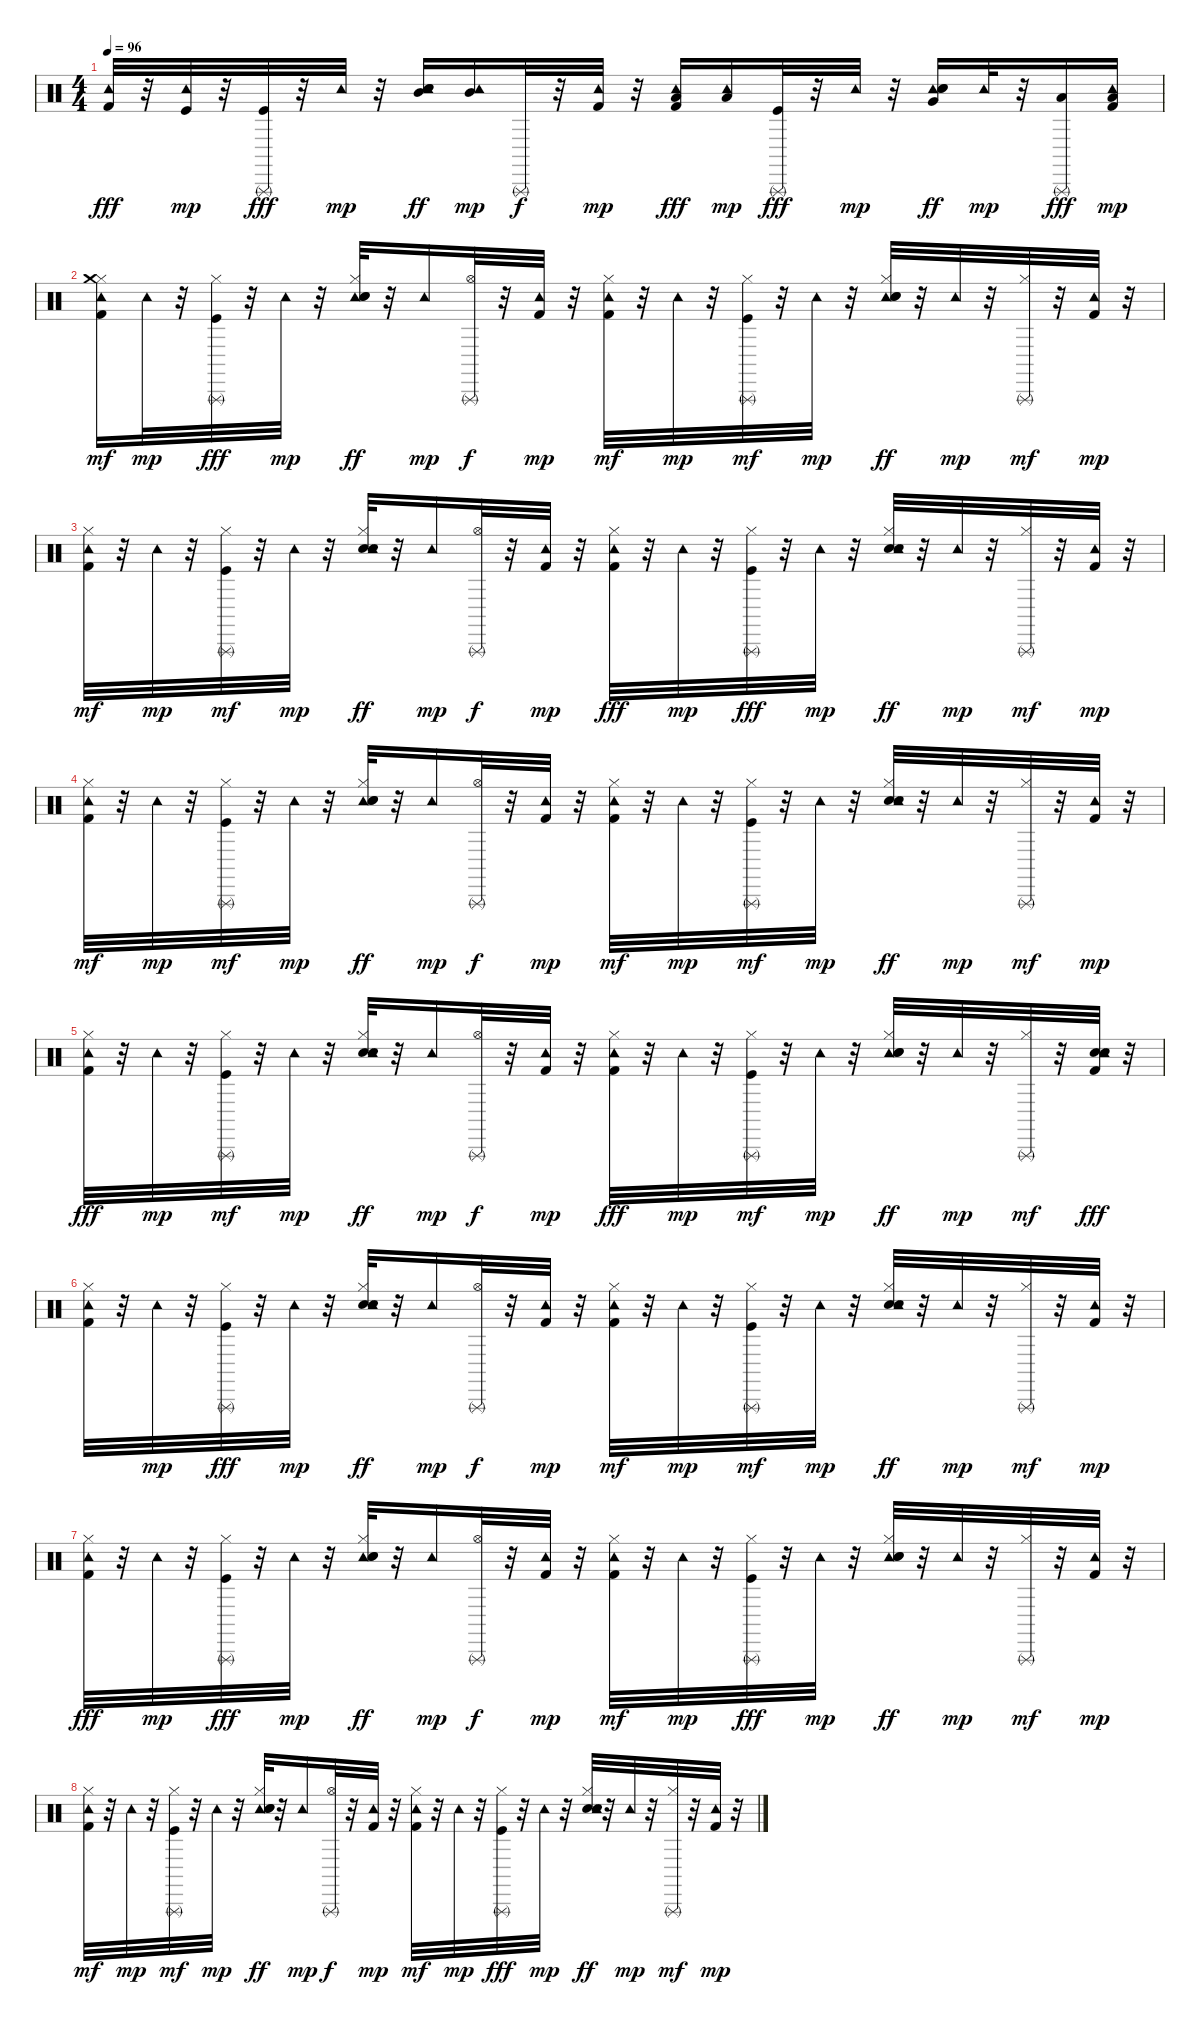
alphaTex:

\track "" {instrument percussion}
\staff {score}
\articulation defaults
\ts (4 4)
\tempo 96
\clef neutral
\ks c
("Tambourine (hit)" "Kick (hit) 2").32{dy fff} r.32 ("Kick (hit)" "Tambourine (hit)").32{dy mp} r.32 ("Kick (hit)" "Triangle (rnute)").32{dy fff} r.32 "Tambourine (hit)".32{dy mp} r.32 ("Tambourine (hit)" "Mid Tom (hit)" "Electric Snare (hit)" "Hand Clap (hit)").16{dy ff} ("Mid Tom (hit)" "Tambourine (hit)").16{dy mp} "Triangle (rnute)".32{dy f} r.32 ("Kick (hit) 2" "Tambourine (hit)").32{dy mp} r.32 ("Tambourine (hit)" "Low Tom (hit)" "Kick (hit) 2").16{dy fff} ("Low Tom (hit)" "Tambourine (hit)").16{dy mp} ("Kick (hit)" "Triangle (rnute)").32{dy fff} r.32 "Tambourine (hit)".32{dy mp} r.32 ("Very Low Tom (hit)" "Tambourine (hit)" "Electric Snare (hit)" "Hand Clap (hit)").16{dy ff} "Tambourine (hit)".32{dy mp} r.32 ("Low Floor Tom (hit)" "Triangle (rnute)").16{dy fff} ("Kick (hit) 2" "Tambourine (hit)" "Low Floor Tom (hit)").16{dy mp} |
("Hi-Hat (closed)" "Crash medium (hit)" "Kick (hit) 2" "Tambourine (hit)").16{dy mf} "Tambourine (hit)".32{dy mp} r.32 ("Triangle (rnute)" "Hi-Hat (closed)" "Kick (hit)").32{dy fff} r.32 "Tambourine (hit)".32{dy mp} r.32 ("Tambourine (hit)" "Electric Snare (hit)" "Hi-Hat (closed)" "Hand Clap (hit)").32{dy ff} r.32 "Tambourine (hit)".16{dy mp} ("Hi-Hat (open)" "Triangle (rnute)").32{dy f} r.32 ("Tambourine (hit)" "Kick (hit) 2").32{dy mp} r.32 ("Kick (hit) 2" "Tambourine (hit)" "Hi-Hat (closed)").32{dy mf} r.32 "Tambourine (hit)".32{dy mp} r.32 ("Kick (hit)" "Triangle (rnute)" "Hi-Hat (closed)").32{dy mf} r.32 "Tambourine (hit)".32{dy mp} r.32 ("Tambourine (hit)" "Electric Snare (hit)" "Hi-Hat (closed)" "Hand Clap (hit)").32{dy ff} r.32 "Tambourine (hit)".32{dy mp} r.32 ("Triangle (rnute)" "Hi-Hat (closed)").32{dy mf} r.32 ("Kick (hit) 2" "Tambourine (hit)").32{dy mp} r.32 |
("Kick (hit) 2" "Hi-Hat (closed)" "Tambourine (hit)").32{dy mf} r.32 "Tambourine (hit)".32{dy mp} r.32 ("Kick (hit)" "Hi-Hat (closed)" "Triangle (rnute)").32{dy mf} r.32 "Tambourine (hit)".32{dy mp} r.32 ("Hi-Hat (closed)" "Electric Snare (hit)" "Tambourine (hit)" "Hand Clap (hit)").32{dy ff} r.32 "Tambourine (hit)".16{dy mp} ("Hi-Hat (open)" "Triangle (rnute)").32{dy f} r.32 ("Tambourine (hit)" "Kick (hit) 2").32{dy mp} r.32 ("Tambourine (hit)" "Hi-Hat (closed)" "Kick (hit) 2").32{dy fff} r.32 "Tambourine (hit)".32{dy mp} r.32 ("Hi-Hat (closed)" "Triangle (rnute)" "Kick (hit)").32{dy fff} r.32 "Tambourine (hit)".32{dy mp} r.32 ("Electric Snare (hit)" "Tambourine (hit)" "Hi-Hat (closed)" "Hand Clap (hit)").32{dy ff} r.32 "Tambourine (hit)".32{dy mp} r.32 ("Hi-Hat (closed)" "Triangle (rnute)").32{dy mf} r.32 ("Kick (hit) 2" "Tambourine (hit)").32{dy mp} r.32 |
("Hi-Hat (closed)" "Kick (hit) 2" "Tambourine (hit)").32{dy mf} r.32 "Tambourine (hit)".32{dy mp} r.32 ("Kick (hit)" "Hi-Hat (closed)" "Triangle (rnute)").32{dy mf} r.32 "Tambourine (hit)".32{dy mp} r.32 ("Tambourine (hit)" "Hi-Hat (closed)" "Electric Snare (hit)" "Hand Clap (hit)").32{dy ff} r.32 "Tambourine (hit)".16{dy mp} ("Triangle (rnute)" "Hi-Hat (open)").32{dy f} r.32 ("Kick (hit) 2" "Tambourine (hit)").32{dy mp} r.32 ("Kick (hit) 2" "Tambourine (hit)" "Hi-Hat (closed)").32{dy mf} r.32 "Tambourine (hit)".32{dy mp} r.32 ("Kick (hit)" "Hi-Hat (closed)" "Triangle (rnute)").32{dy mf} r.32 "Tambourine (hit)".32{dy mp} r.32 ("Electric Snare (hit)" "Hi-Hat (closed)" "Tambourine (hit)" "Hand Clap (hit)").32{dy ff} r.32 "Tambourine (hit)".32{dy mp} r.32 ("Hi-Hat (closed)" "Triangle (rnute)").32{dy mf} r.32 ("Kick (hit) 2" "Tambourine (hit)").32{dy mp} r.32 |
("Tambourine (hit)" "Hi-Hat (closed)" "Kick (hit) 2").32{dy fff} r.32 "Tambourine (hit)".32{dy mp} r.32 ("Triangle (rnute)" "Kick (hit)" "Hi-Hat (closed)").32{dy mf} r.32 "Tambourine (hit)".32{dy mp} r.32 ("Electric Snare (hit)" "Hi-Hat (closed)" "Tambourine (hit)" "Hand Clap (hit)").32{dy ff} r.32 "Tambourine (hit)".16{dy mp} ("Triangle (rnute)" "Hi-Hat (open)").32{dy f} r.32 ("Tambourine (hit)" "Kick (hit) 2").32{dy mp} r.32 ("Tambourine (hit)" "Kick (hit) 2" "Hi-Hat (closed)").32{dy fff} r.32 "Tambourine (hit)".32{dy mp} r.32 ("Triangle (rnute)" "Kick (hit)" "Hi-Hat (closed)").32{dy mf} r.32 "Tambourine (hit)".32{dy mp} r.32 ("Tambourine (hit)" "Hi-Hat (closed)" "Electric Snare (hit)" "Hand Clap (hit)").32{dy ff} r.32 "Tambourine (hit)".32{dy mp} r.32 ("Triangle (rnute)" "Hi-Hat (closed)").32{dy mf} r.32 ("Hand Clap (hit)" "Tambourine (hit)" "Electric Snare (hit)" "Kick (hit) 2").32{dy fff} r.32 |
("Hi-Hat (closed)" "Tambourine (hit)" "Kick (hit) 2").32 r.32 "Tambourine (hit)".32{dy mp} r.32 ("Triangle (rnute)" "Hi-Hat (closed)" "Kick (hit)").32{dy fff} r.32 "Tambourine (hit)".32{dy mp} r.32 ("Electric Snare (hit)" "Tambourine (hit)" "Hi-Hat (closed)" "Hand Clap (hit)").32{dy ff} r.32 "Tambourine (hit)".16{dy mp} ("Triangle (rnute)" "Hi-Hat (open)").32{dy f} r.32 ("Kick (hit) 2" "Tambourine (hit)").32{dy mp} r.32 ("Hi-Hat (closed)" "Kick (hit) 2" "Tambourine (hit)").32{dy mf} r.32 "Tambourine (hit)".32{dy mp} r.32 ("Kick (hit)" "Hi-Hat (closed)" "Triangle (rnute)").32{dy mf} r.32 "Tambourine (hit)".32{dy mp} r.32 ("Electric Snare (hit)" "Tambourine (hit)" "Hi-Hat (closed)" "Hand Clap (hit)").32{dy ff} r.32 "Tambourine (hit)".32{dy mp} r.32 ("Triangle (rnute)" "Hi-Hat (closed)").32{dy mf} r.32 ("Tambourine (hit)" "Kick (hit) 2").32{dy mp} r.32 |
("Tambourine (hit)" "Hi-Hat (closed)" "Kick (hit) 2").32{dy fff} r.32 "Tambourine (hit)".32{dy mp} r.32 ("Hi-Hat (closed)" "Triangle (rnute)" "Kick (hit)").32{dy fff} r.32 "Tambourine (hit)".32{dy mp} r.32 ("Tambourine (hit)" "Electric Snare (hit)" "Hi-Hat (closed)" "Hand Clap (hit)").32{dy ff} r.32 "Tambourine (hit)".16{dy mp} ("Hi-Hat (open)" "Triangle (rnute)").32{dy f} r.32 ("Tambourine (hit)" "Kick (hit) 2").32{dy mp} r.32 ("Hi-Hat (closed)" "Kick (hit) 2" "Tambourine (hit)").32{dy mf} r.32 "Tambourine (hit)".32{dy mp} r.32 ("Triangle (rnute)" "Hi-Hat (closed)" "Kick (hit)").32{dy fff} r.32 "Tambourine (hit)".32{dy mp} r.32 ("Hi-Hat (closed)" "Tambourine (hit)" "Electric Snare (hit)" "Hand Clap (hit)").32{dy ff} r.32 "Tambourine (hit)".32{dy mp} r.32 ("Hi-Hat (closed)" "Triangle (rnute)").32{dy mf} r.32 ("Tambourine (hit)" "Kick (hit) 2").32{dy mp} r.32 |
("Kick (hit) 2" "Hi-Hat (closed)" "Tambourine (hit)").32{dy mf} r.32 "Tambourine (hit)".32{dy mp} r.32 ("Kick (hit)" "Hi-Hat (closed)" "Triangle (rnute)").32{dy mf} r.32 "Tambourine (hit)".32{dy mp} r.32 ("Tambourine (hit)" "Hi-Hat (closed)" "Electric Snare (hit)" "Hand Clap (hit)").32{dy ff} r.32 "Tambourine (hit)".16{dy mp} ("Triangle (rnute)" "Hi-Hat (open)").32{dy f} r.32 ("Tambourine (hit)" "Kick (hit) 2").32{dy mp} r.32 ("Kick (hit) 2" "Tambourine (hit)" "Hi-Hat (closed)").32{dy mf} r.32 "Tambourine (hit)".32{dy mp} r.32 ("Hi-Hat (closed)" "Triangle (rnute)" "Kick (hit)").32{dy fff} r.32 "Tambourine (hit)".32{dy mp} r.32 ("Hi-Hat (closed)" "Electric Snare (hit)" "Tambourine (hit)" "Hand Clap (hit)").32{dy ff} r.32 "Tambourine (hit)".32{dy mp} r.32 ("Triangle (rnute)" "Hi-Hat (closed)").32{dy mf} r.32 ("Kick (hit) 2" "Tambourine (hit)").32{dy mp} r.32
